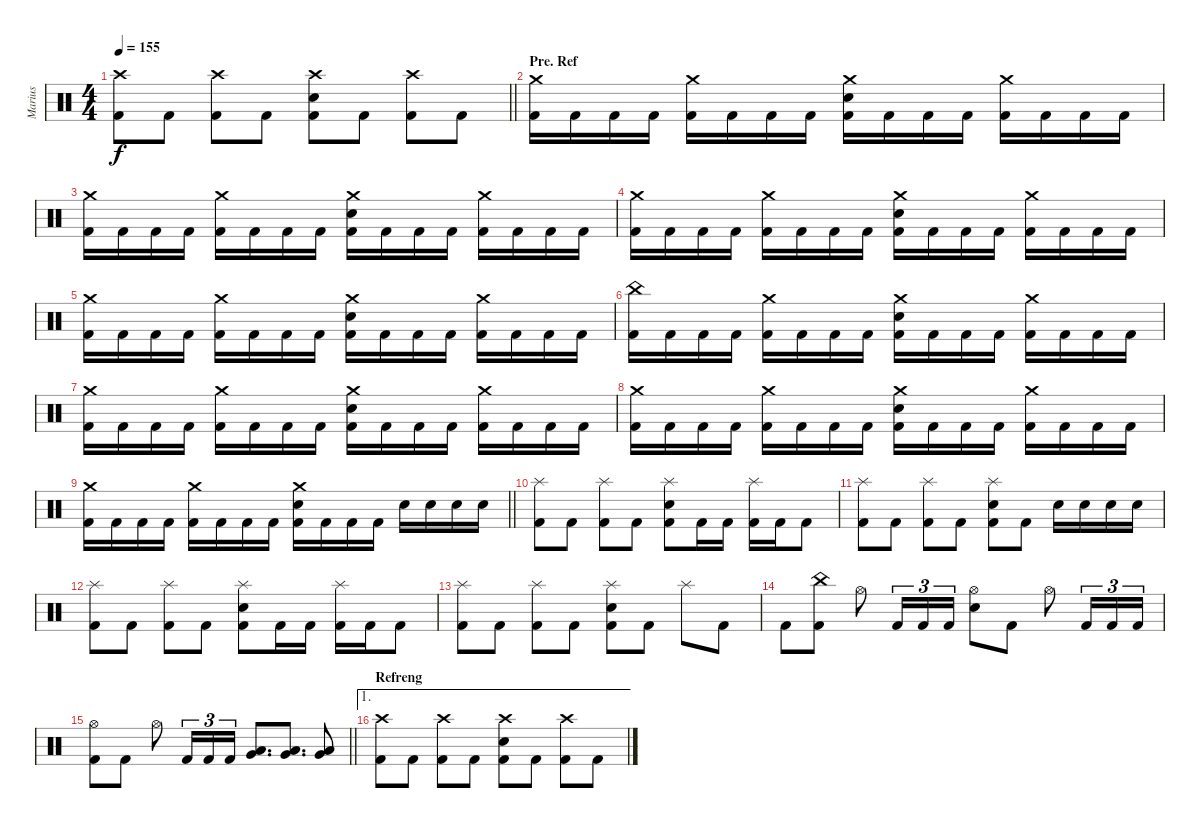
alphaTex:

\track ("Marius" "Marius") {instrument percussion}
\staff {score}
\articulation defaults
\ts (4 4)
\tempo 155
\clef neutral
\barLineRight lightlight
\ks c
("Crash high (hit)" "Kick (hit) 2").8{dy f} "Kick (hit) 2".8 ("Crash high (hit)" "Kick (hit) 2").8 "Kick (hit) 2".8 ("Crash high (hit)" "Snare (hit) 2" "Kick (hit) 2").8 "Kick (hit) 2".8 ("Crash high (hit)" "Kick (hit) 2").8 "Kick (hit) 2".8 |
\section ("" "Pre. Ref")
("Crash medium (hit)" "Kick (hit) 2").16 "Kick (hit) 2".16 "Kick (hit) 2".16 "Kick (hit) 2".16 ("Crash medium (hit)" "Kick (hit) 2").16 "Kick (hit) 2".16 "Kick (hit) 2".16 "Kick (hit) 2".16 ("Crash medium (hit)" "Snare (hit) 2" "Kick (hit) 2").16 "Kick (hit) 2".16 "Kick (hit) 2".16 "Kick (hit) 2".16 ("Crash medium (hit)" "Kick (hit) 2").16 "Kick (hit) 2".16 "Kick (hit) 2".16 "Kick (hit) 2".16 |
("Crash medium (hit)" "Kick (hit) 2").16 "Kick (hit) 2".16 "Kick (hit) 2".16 "Kick (hit) 2".16 ("Crash medium (hit)" "Kick (hit) 2").16 "Kick (hit) 2".16 "Kick (hit) 2".16 "Kick (hit) 2".16 ("Crash medium (hit)" "Snare (hit) 2" "Kick (hit) 2").16 "Kick (hit) 2".16 "Kick (hit) 2".16 "Kick (hit) 2".16 ("Crash medium (hit)" "Kick (hit) 2").16 "Kick (hit) 2".16 "Kick (hit) 2".16 "Kick (hit) 2".16 |
("Crash medium (hit)" "Kick (hit) 2").16 "Kick (hit) 2".16 "Kick (hit) 2".16 "Kick (hit) 2".16 ("Crash medium (hit)" "Kick (hit) 2").16 "Kick (hit) 2".16 "Kick (hit) 2".16 "Kick (hit) 2".16 ("Crash medium (hit)" "Snare (hit) 2" "Kick (hit) 2").16 "Kick (hit) 2".16 "Kick (hit) 2".16 "Kick (hit) 2".16 ("Crash medium (hit)" "Kick (hit) 2").16 "Kick (hit) 2".16 "Kick (hit) 2".16 "Kick (hit) 2".16 |
("Crash medium (hit)" "Kick (hit) 2").16 "Kick (hit) 2".16 "Kick (hit) 2".16 "Kick (hit) 2".16 ("Crash medium (hit)" "Kick (hit) 2").16 "Kick (hit) 2".16 "Kick (hit) 2".16 "Kick (hit) 2".16 ("Crash medium (hit)" "Snare (hit) 2" "Kick (hit) 2").16 "Kick (hit) 2".16 "Kick (hit) 2".16 "Kick (hit) 2".16 ("Crash medium (hit)" "Kick (hit) 2").16 "Kick (hit) 2".16 "Kick (hit) 2".16 "Kick (hit) 2".16 |
("China (hit)" "Kick (hit) 2").16 "Kick (hit) 2".16 "Kick (hit) 2".16 "Kick (hit) 2".16 ("Crash medium (hit)" "Kick (hit) 2").16 "Kick (hit) 2".16 "Kick (hit) 2".16 "Kick (hit) 2".16 ("Crash medium (hit)" "Snare (hit) 2" "Kick (hit) 2").16 "Kick (hit) 2".16 "Kick (hit) 2".16 "Kick (hit) 2".16 ("Crash medium (hit)" "Kick (hit) 2").16 "Kick (hit) 2".16 "Kick (hit) 2".16 "Kick (hit) 2".16 |
("Crash medium (hit)" "Kick (hit) 2").16 "Kick (hit) 2".16 "Kick (hit) 2".16 "Kick (hit) 2".16 ("Crash medium (hit)" "Kick (hit) 2").16 "Kick (hit) 2".16 "Kick (hit) 2".16 "Kick (hit) 2".16 ("Crash medium (hit)" "Snare (hit) 2" "Kick (hit) 2").16 "Kick (hit) 2".16 "Kick (hit) 2".16 "Kick (hit) 2".16 ("Crash medium (hit)" "Kick (hit) 2").16 "Kick (hit) 2".16 "Kick (hit) 2".16 "Kick (hit) 2".16 |
("Crash medium (hit)" "Kick (hit) 2").16 "Kick (hit) 2".16 "Kick (hit) 2".16 "Kick (hit) 2".16 ("Crash medium (hit)" "Kick (hit) 2").16 "Kick (hit) 2".16 "Kick (hit) 2".16 "Kick (hit) 2".16 ("Crash medium (hit)" "Snare (hit) 2" "Kick (hit) 2").16 "Kick (hit) 2".16 "Kick (hit) 2".16 "Kick (hit) 2".16 ("Crash medium (hit)" "Kick (hit) 2").16 "Kick (hit) 2".16 "Kick (hit) 2".16 "Kick (hit) 2".16 |
\barLineRight lightlight
("Crash medium (hit)" "Kick (hit) 2").16 "Kick (hit) 2".16 "Kick (hit) 2".16 "Kick (hit) 2".16 ("Crash medium (hit)" "Kick (hit) 2").16 "Kick (hit) 2".16 "Kick (hit) 2".16 "Kick (hit) 2".16 ("Crash medium (hit)" "Snare (hit) 2" "Kick (hit) 2").16 "Kick (hit) 2".16 "Kick (hit) 2".16 "Kick (hit) 2".16 "Snare (hit) 2".16 "Snare (hit) 2".16 "Snare (hit) 2".16 "Snare (hit) 2".16 |
\section ("" "")
("Splash (hit)" "Kick (hit) 2").8 "Kick (hit) 2".8 ("Splash (hit)" "Kick (hit) 2").8 "Kick (hit) 2".8 ("Splash (hit)" "Snare (hit) 2" "Kick (hit) 2").8 "Kick (hit) 2".16 "Kick (hit) 2".16 ("Splash (hit)" "Kick (hit) 2").16 "Kick (hit) 2".16 "Kick (hit) 2".8 |
("Splash (hit)" "Kick (hit) 2").8 "Kick (hit) 2".8 ("Splash (hit)" "Kick (hit) 2").8 "Kick (hit) 2".8 ("Splash (hit)" "Snare (hit) 2" "Kick (hit) 2").8 "Kick (hit) 2".8 "Snare (hit) 2".16 "Snare (hit) 2".16 "Snare (hit) 2".16 "Snare (hit) 2".16 |
("Splash (hit)" "Kick (hit) 2").8 "Kick (hit) 2".8 ("Splash (hit)" "Kick (hit) 2").8 "Kick (hit) 2".8 ("Splash (hit)" "Snare (hit) 2" "Kick (hit) 2").8 "Kick (hit) 2".16 "Kick (hit) 2".16 ("Splash (hit)" "Kick (hit) 2").16 "Kick (hit) 2".16 "Kick (hit) 2".8 |
("Splash (hit)" "Kick (hit) 2").8 "Kick (hit) 2".8 ("Splash (hit)" "Kick (hit) 2").8 "Kick (hit) 2".8 ("Splash (hit)" "Snare (hit) 2" "Kick (hit) 2").8 "Kick (hit) 2".8 "Splash (hit)".8 "Kick (hit) 2".8 |
"Kick (hit) 2".8 ("China (hit)" "Kick (hit) 2").8 "Hi-Hat (open)".8 "Kick (hit) 2".16{tu (3 2)} "Kick (hit) 2".16{tu (3 2)} "Kick (hit) 2".16{tu (3 2)} ("Hi-Hat (open)" "Snare (hit) 2").8 "Kick (hit) 2".8 "Hi-Hat (open)".8 "Kick (hit) 2".16{tu (3 2)} "Kick (hit) 2".16{tu (3 2)} "Kick (hit) 2".16{tu (3 2)} |
\barLineRight lightlight
("Hi-Hat (open)" "Kick (hit) 2").8 "Kick (hit) 2".8 "Hi-Hat (open)".8 "Kick (hit) 2".16{tu (3 2)} "Kick (hit) 2".16{tu (3 2)} "Kick (hit) 2".16{tu (3 2)} ("Low Tom (hit)" "Very Low Tom (hit)").8{d} ("Low Tom (hit)" "Very Low Tom (hit)").8{d} ("Low Tom (hit)" "Very Low Tom (hit)").8 |
\ae 1
\section ("" "Refreng")
("Crash high (hit)" "Kick (hit) 2").8 "Kick (hit) 2".8 ("Crash high (hit)" "Kick (hit) 2").8 "Kick (hit) 2".8 ("Crash high (hit)" "Snare (hit) 2" "Kick (hit) 2").8 "Kick (hit) 2".8 ("Crash high (hit)" "Kick (hit) 2").8 "Kick (hit) 2".8
